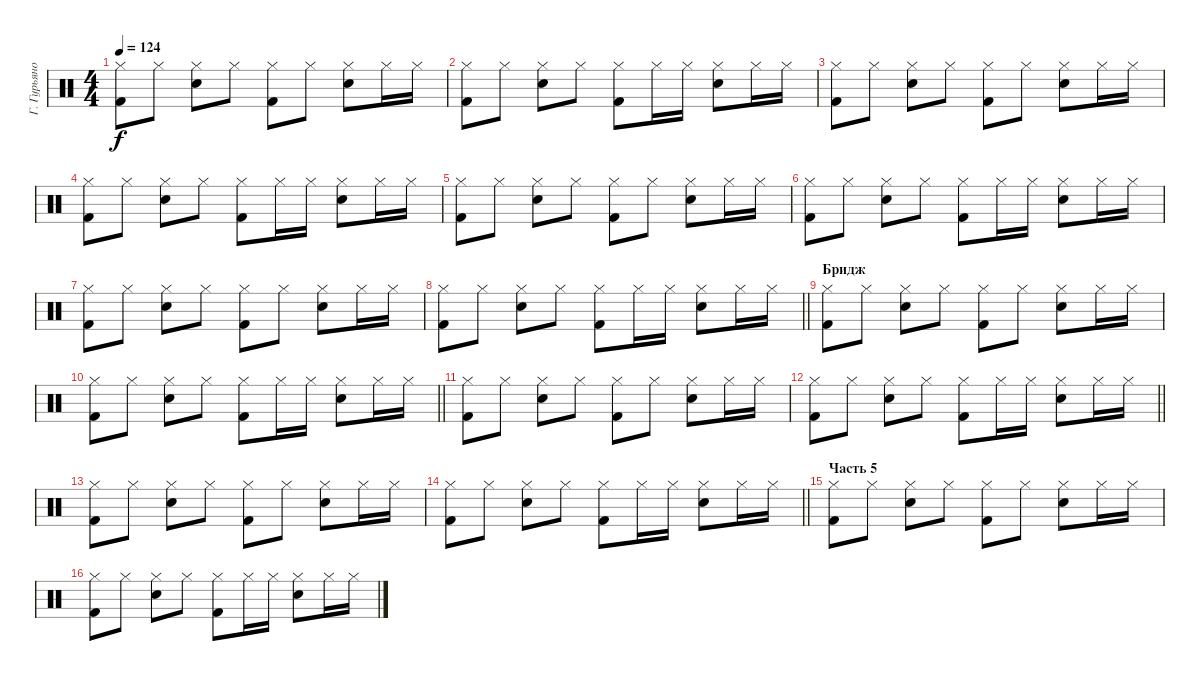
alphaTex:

\track ("Г. Гурьянов" "Г. Гурьяно") {instrument percussion}
\staff
\articulation defaults
\ts (4 4)
\tempo 124
\clef neutral
\ks c
("Hi-Hat (closed)" "Kick (hit) 2").8{dy f} "Hi-Hat (closed)".8 ("Hi-Hat (closed)" "Snare (hit) 2").8 "Hi-Hat (closed)".8 ("Hi-Hat (closed)" "Kick (hit) 2").8 "Hi-Hat (closed)".8 ("Hi-Hat (closed)" "Snare (hit) 2").8 "Hi-Hat (closed)".16 "Hi-Hat (closed)".16 |
("Hi-Hat (closed)" "Kick (hit) 2").8 "Hi-Hat (closed)".8 ("Hi-Hat (closed)" "Snare (hit) 2").8 "Hi-Hat (closed)".8 ("Hi-Hat (closed)" "Kick (hit) 2").8 "Hi-Hat (closed)".16 "Hi-Hat (closed)".16 ("Hi-Hat (closed)" "Snare (hit) 2").8 "Hi-Hat (closed)".16 "Hi-Hat (closed)".16 |
("Hi-Hat (closed)" "Kick (hit) 2").8 "Hi-Hat (closed)".8 ("Hi-Hat (closed)" "Snare (hit) 2").8 "Hi-Hat (closed)".8 ("Hi-Hat (closed)" "Kick (hit) 2").8 "Hi-Hat (closed)".8 ("Hi-Hat (closed)" "Snare (hit) 2").8 "Hi-Hat (closed)".16 "Hi-Hat (closed)".16 |
("Hi-Hat (closed)" "Kick (hit) 2").8 "Hi-Hat (closed)".8 ("Hi-Hat (closed)" "Snare (hit) 2").8 "Hi-Hat (closed)".8 ("Hi-Hat (closed)" "Kick (hit) 2").8 "Hi-Hat (closed)".16 "Hi-Hat (closed)".16 ("Hi-Hat (closed)" "Snare (hit) 2").8 "Hi-Hat (closed)".16 "Hi-Hat (closed)".16 |
("Hi-Hat (closed)" "Kick (hit) 2").8 "Hi-Hat (closed)".8 ("Hi-Hat (closed)" "Snare (hit) 2").8 "Hi-Hat (closed)".8 ("Hi-Hat (closed)" "Kick (hit) 2").8 "Hi-Hat (closed)".8 ("Hi-Hat (closed)" "Snare (hit) 2").8 "Hi-Hat (closed)".16 "Hi-Hat (closed)".16 |
("Hi-Hat (closed)" "Kick (hit) 2").8 "Hi-Hat (closed)".8 ("Hi-Hat (closed)" "Snare (hit) 2").8 "Hi-Hat (closed)".8 ("Hi-Hat (closed)" "Kick (hit) 2").8 "Hi-Hat (closed)".16 "Hi-Hat (closed)".16 ("Hi-Hat (closed)" "Snare (hit) 2").8 "Hi-Hat (closed)".16 "Hi-Hat (closed)".16 |
("Hi-Hat (closed)" "Kick (hit) 2").8 "Hi-Hat (closed)".8 ("Hi-Hat (closed)" "Snare (hit) 2").8 "Hi-Hat (closed)".8 ("Hi-Hat (closed)" "Kick (hit) 2").8 "Hi-Hat (closed)".8 ("Hi-Hat (closed)" "Snare (hit) 2").8 "Hi-Hat (closed)".16 "Hi-Hat (closed)".16 |
\barLineRight lightlight
("Hi-Hat (closed)" "Kick (hit) 2").8 "Hi-Hat (closed)".8 ("Hi-Hat (closed)" "Snare (hit) 2").8 "Hi-Hat (closed)".8 ("Hi-Hat (closed)" "Kick (hit) 2").8 "Hi-Hat (closed)".16 "Hi-Hat (closed)".16 ("Hi-Hat (closed)" "Snare (hit) 2").8 "Hi-Hat (closed)".16 "Hi-Hat (closed)".16 |
\section ("" "Бридж")
("Hi-Hat (closed)" "Kick (hit) 2").8 "Hi-Hat (closed)".8 ("Hi-Hat (closed)" "Snare (hit) 2").8 "Hi-Hat (closed)".8 ("Hi-Hat (closed)" "Kick (hit) 2").8 "Hi-Hat (closed)".8 ("Hi-Hat (closed)" "Snare (hit) 2").8 "Hi-Hat (closed)".16 "Hi-Hat (closed)".16 |
\barLineRight lightlight
("Hi-Hat (closed)" "Kick (hit) 2").8 "Hi-Hat (closed)".8 ("Hi-Hat (closed)" "Snare (hit) 2").8 "Hi-Hat (closed)".8 ("Hi-Hat (closed)" "Kick (hit) 2").8 "Hi-Hat (closed)".16 "Hi-Hat (closed)".16 ("Hi-Hat (closed)" "Snare (hit) 2").8 "Hi-Hat (closed)".16 "Hi-Hat (closed)".16 |
("Hi-Hat (closed)" "Kick (hit) 2").8 "Hi-Hat (closed)".8 ("Hi-Hat (closed)" "Snare (hit) 2").8 "Hi-Hat (closed)".8 ("Hi-Hat (closed)" "Kick (hit) 2").8 "Hi-Hat (closed)".8 ("Hi-Hat (closed)" "Snare (hit) 2").8 "Hi-Hat (closed)".16 "Hi-Hat (closed)".16 |
\barLineRight lightlight
("Hi-Hat (closed)" "Kick (hit) 2").8 "Hi-Hat (closed)".8 ("Hi-Hat (closed)" "Snare (hit) 2").8 "Hi-Hat (closed)".8 ("Hi-Hat (closed)" "Kick (hit) 2").8 "Hi-Hat (closed)".16 "Hi-Hat (closed)".16 ("Hi-Hat (closed)" "Snare (hit) 2").8 "Hi-Hat (closed)".16 "Hi-Hat (closed)".16 |
("Hi-Hat (closed)" "Kick (hit) 2").8 "Hi-Hat (closed)".8 ("Hi-Hat (closed)" "Snare (hit) 2").8 "Hi-Hat (closed)".8 ("Hi-Hat (closed)" "Kick (hit) 2").8 "Hi-Hat (closed)".8 ("Hi-Hat (closed)" "Snare (hit) 2").8 "Hi-Hat (closed)".16 "Hi-Hat (closed)".16 |
\barLineRight lightlight
("Hi-Hat (closed)" "Kick (hit) 2").8 "Hi-Hat (closed)".8 ("Hi-Hat (closed)" "Snare (hit) 2").8 "Hi-Hat (closed)".8 ("Hi-Hat (closed)" "Kick (hit) 2").8 "Hi-Hat (closed)".16 "Hi-Hat (closed)".16 ("Hi-Hat (closed)" "Snare (hit) 2").8 "Hi-Hat (closed)".16 "Hi-Hat (closed)".16 |
\section ("" "Часть 5")
("Hi-Hat (closed)" "Kick (hit) 2").8 "Hi-Hat (closed)".8 ("Hi-Hat (closed)" "Snare (hit) 2").8 "Hi-Hat (closed)".8 ("Hi-Hat (closed)" "Kick (hit) 2").8 "Hi-Hat (closed)".8 ("Hi-Hat (closed)" "Snare (hit) 2").8 "Hi-Hat (closed)".16 "Hi-Hat (closed)".16 |
("Hi-Hat (closed)" "Kick (hit) 2").8 "Hi-Hat (closed)".8 ("Hi-Hat (closed)" "Snare (hit) 2").8 "Hi-Hat (closed)".8 ("Hi-Hat (closed)" "Kick (hit) 2").8 "Hi-Hat (closed)".16 "Hi-Hat (closed)".16 ("Hi-Hat (closed)" "Snare (hit) 2").8 "Hi-Hat (closed)".16 "Hi-Hat (closed)".16
